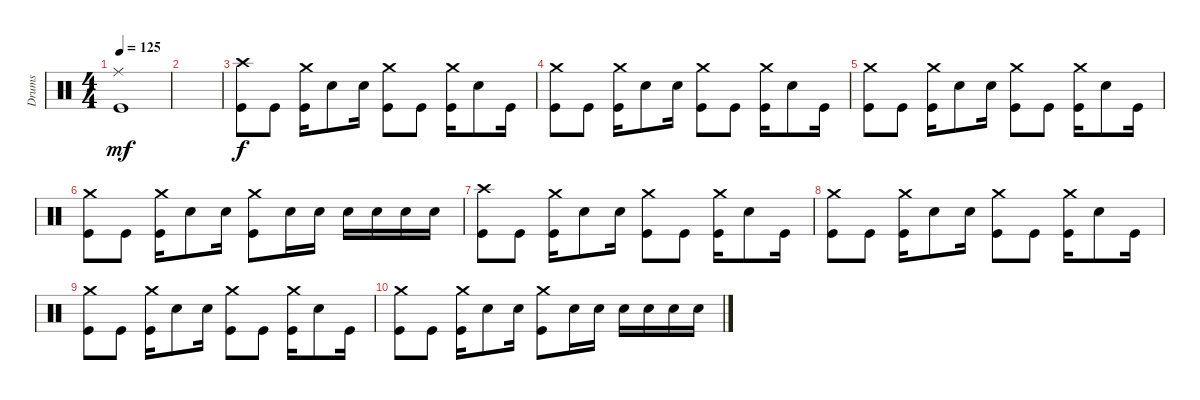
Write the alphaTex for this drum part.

\track ("Drums" "Drums") {instrument percussion}
\staff {score}
\articulation defaults
\ts (4 4)
\tempo 125
\clef neutral
\ks c
("Kick (hit)" "Ride (middle)").1{dy mf} |
|
("Kick (hit)" "Crash high (hit)").8{dy f} "Kick (hit)".8 ("Kick (hit)" "Crash medium (hit)").16 "Snare (hit) 2".8 "Snare (hit) 2".16 ("Kick (hit)" "Crash medium (hit)").8 "Kick (hit)".8 ("Kick (hit)" "Crash medium (hit)").16 "Snare (hit) 2".8 "Kick (hit)".16 |
("Kick (hit)" "Crash medium (hit)").8 "Kick (hit)".8 ("Kick (hit)" "Crash medium (hit)").16 "Snare (hit) 2".8 "Snare (hit) 2".16 ("Kick (hit)" "Crash medium (hit)").8 "Kick (hit)".8 ("Kick (hit)" "Crash medium (hit)").16 "Snare (hit) 2".8 "Kick (hit)".16 |
("Kick (hit)" "Crash medium (hit)").8 "Kick (hit)".8 ("Kick (hit)" "Crash medium (hit)").16 "Snare (hit) 2".8 "Snare (hit) 2".16 ("Kick (hit)" "Crash medium (hit)").8 "Kick (hit)".8 ("Kick (hit)" "Crash medium (hit)").16 "Snare (hit) 2".8 "Kick (hit)".16 |
("Kick (hit)" "Crash medium (hit)").8 "Kick (hit)".8 ("Kick (hit)" "Crash medium (hit)").16 "Snare (hit) 2".8 "Snare (hit) 2".16 ("Kick (hit)" "Crash medium (hit)").8 "Snare (hit) 2".16 "Snare (hit) 2".16 "Snare (hit) 2".16 "Snare (hit) 2".16 "Snare (hit) 2".16 "Snare (hit) 2".16 |
("Kick (hit)" "Crash high (hit)").8 "Kick (hit)".8 ("Kick (hit)" "Crash medium (hit)").16 "Snare (hit) 2".8 "Snare (hit) 2".16 ("Kick (hit)" "Crash medium (hit)").8 "Kick (hit)".8 ("Kick (hit)" "Crash medium (hit)").16 "Snare (hit) 2".8 "Kick (hit)".16 |
("Kick (hit)" "Crash medium (hit)").8 "Kick (hit)".8 ("Kick (hit)" "Crash medium (hit)").16 "Snare (hit) 2".8 "Snare (hit) 2".16 ("Kick (hit)" "Crash medium (hit)").8 "Kick (hit)".8 ("Kick (hit)" "Crash medium (hit)").16 "Snare (hit) 2".8 "Kick (hit)".16 |
("Kick (hit)" "Crash medium (hit)").8 "Kick (hit)".8 ("Kick (hit)" "Crash medium (hit)").16 "Snare (hit) 2".8 "Snare (hit) 2".16 ("Kick (hit)" "Crash medium (hit)").8 "Kick (hit)".8 ("Kick (hit)" "Crash medium (hit)").16 "Snare (hit) 2".8 "Kick (hit)".16 |
("Kick (hit)" "Crash medium (hit)").8 "Kick (hit)".8 ("Kick (hit)" "Crash medium (hit)").16 "Snare (hit) 2".8 "Snare (hit) 2".16 ("Kick (hit)" "Crash medium (hit)").8 "Snare (hit) 2".16 "Snare (hit) 2".16 "Snare (hit) 2".16 "Snare (hit) 2".16 "Snare (hit) 2".16 "Snare (hit) 2".16
